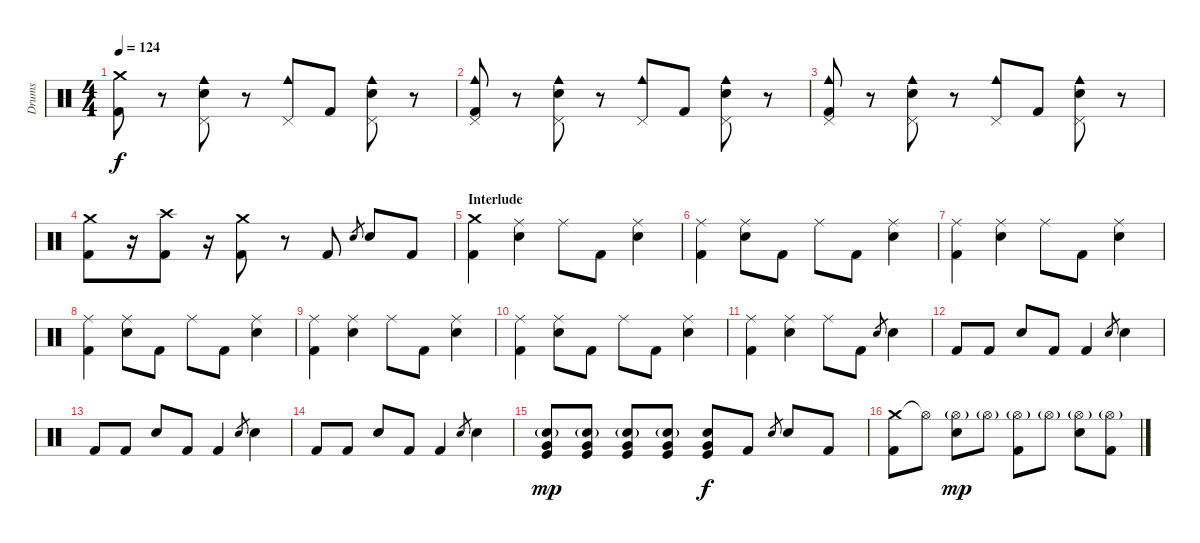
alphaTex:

\track ("Drums" "Drums") {instrument percussion}
\staff {score}
\articulation defaults
\ts (4 4)
\tempo 124
\clef neutral
\ks c
("Crash medium (hit)" "Kick (hit) 2").8{dy f} r.8 ("Cowbell medium (hit)" "Pedal Hi-Hat (hit)" "Snare (hit) 2").8 r.8 ("Cowbell medium (hit)" "Pedal Hi-Hat (hit)").8 "Kick (hit) 2".8 ("Cowbell medium (hit)" "Pedal Hi-Hat (hit)" "Snare (hit) 2").8 r.8 |
("Cowbell medium (hit)" "Pedal Hi-Hat (hit)" "Kick (hit) 2").8 r.8 ("Cowbell medium (hit)" "Pedal Hi-Hat (hit)" "Snare (hit) 2").8 r.8 ("Cowbell medium (hit)" "Pedal Hi-Hat (hit)").8 "Kick (hit) 2".8 ("Cowbell medium (hit)" "Pedal Hi-Hat (hit)" "Snare (hit) 2").8 r.8 |
("Cowbell medium (hit)" "Pedal Hi-Hat (hit)" "Kick (hit) 2").8 r.8 ("Cowbell medium (hit)" "Pedal Hi-Hat (hit)" "Snare (hit) 2").8 r.8 ("Cowbell medium (hit)" "Pedal Hi-Hat (hit)").8 "Kick (hit) 2".8 ("Cowbell medium (hit)" "Pedal Hi-Hat (hit)" "Snare (hit) 2").8 r.8 |
("Crash medium (hit)" "Kick (hit) 2").8 r.16 ("Crash high (hit)" "Kick (hit) 2").8 r.16 ("Crash medium (hit)" "Kick (hit) 2").8 r.8 "Kick (hit) 2".8 "Snare (hit) 2".8{gr} "Snare (hit) 2".8 "Kick (hit) 2".8 |
\section ("" "Interlude")
("Crash medium (hit)" "Kick (hit) 2").4 ("Ride (middle)" "Snare (hit) 2").4 "Ride (middle)".8 "Kick (hit) 2".8 ("Ride (middle)" "Snare (hit) 2").4 |
("Ride (middle)" "Kick (hit) 2").4 ("Ride (middle)" "Snare (hit) 2").8 "Kick (hit) 2".8 "Ride (middle)".8 "Kick (hit) 2".8 ("Ride (middle)" "Snare (hit) 2").4 |
("Ride (middle)" "Kick (hit) 2").4 ("Ride (middle)" "Snare (hit) 2").4 "Ride (middle)".8 "Kick (hit) 2".8 ("Ride (middle)" "Snare (hit) 2").4 |
("Ride (middle)" "Kick (hit) 2").4 ("Ride (middle)" "Snare (hit) 2").8 "Kick (hit) 2".8 "Ride (middle)".8 "Kick (hit) 2".8 ("Ride (middle)" "Snare (hit) 2").4 |
("Ride (middle)" "Kick (hit) 2").4 ("Ride (middle)" "Snare (hit) 2").4 "Ride (middle)".8 "Kick (hit) 2".8 ("Ride (middle)" "Snare (hit) 2").4 |
("Ride (middle)" "Kick (hit) 2").4 ("Ride (middle)" "Snare (hit) 2").8 "Kick (hit) 2".8 "Ride (middle)".8 "Kick (hit) 2".8 ("Ride (middle)" "Snare (hit) 2").4 |
("Ride (middle)" "Kick (hit) 2").4 ("Ride (middle)" "Snare (hit) 2").4 "Ride (middle)".8 "Kick (hit) 2".8 "Snare (hit) 2".8{gr} "Snare (hit) 2".4 |
"Kick (hit) 2".8 "Kick (hit) 2".8 "Snare (hit) 2".8 "Kick (hit) 2".8 "Kick (hit) 2".4 "Snare (hit) 2".8{gr} "Snare (hit) 2".4 |
"Kick (hit) 2".8 "Kick (hit) 2".8 "Snare (hit) 2".8 "Kick (hit) 2".8 "Kick (hit) 2".4 "Snare (hit) 2".8{gr} "Snare (hit) 2".4 |
"Kick (hit) 2".8 "Kick (hit) 2".8 "Snare (hit) 2".8 "Kick (hit) 2".8 "Kick (hit) 2".4 "Snare (hit) 2".8{gr} "Snare (hit) 2".4 |
("Electric Snare (hit)"{g} "Very Low Tom (hit)" "Kick (hit)").8{dy mp} ("Electric Snare (hit)"{g} "Very Low Tom (hit)" "Kick (hit)").8 ("Electric Snare (hit)"{g} "Very Low Tom (hit)" "Kick (hit)").8 ("Electric Snare (hit)"{g} "Very Low Tom (hit)" "Kick (hit)").8 ("Snare (hit) 2" "Very Low Tom (hit)" "Kick (hit)").8{dy f} "Kick (hit) 2".8 "Snare (hit) 2".8{gr} "Snare (hit) 2".8 "Kick (hit) 2".8 |
("Crash medium (hit)" "Kick (hit) 2").8 "Hi-Hat (open)"{t}.8 ("Hi-Hat (open)"{g} "Snare (hit) 2").8{dy mp} "Hi-Hat (open)"{g}.8 ("Hi-Hat (open)"{g} "Kick (hit) 2").8 "Hi-Hat (open)"{g}.8 ("Hi-Hat (open)"{g} "Snare (hit) 2").8 ("Hi-Hat (open)"{g} "Kick (hit) 2").8
